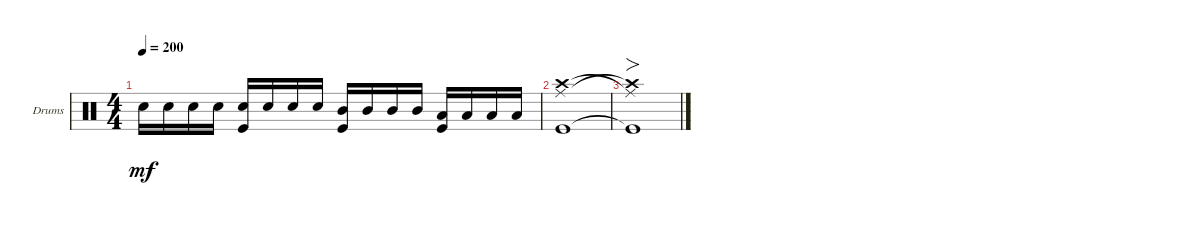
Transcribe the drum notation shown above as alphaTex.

\defaultSystemsLayout 4
\bracketExtendMode groupsimilarinstruments
\firstSystemTrackNameOrientation horizontal
\otherSystemsTrackNameOrientation horizontal
\track ("Hell on da drums" "Drums") {instrument percussion}
\staff {score}
\articulation defaults
\ts (4 4)
\tempo 200
\clef neutral
\ks c "Snare (hit) 2".16{dy mf} "Snare (hit) 2".16 "Snare (hit) 2".16 "Snare (hit) 2".16
("Kick (hit)" "Snare (hit) 2").16 "Snare (hit) 2".16 "Snare (hit) 2".16 "Snare (hit) 2".16 ("Mid Tom (hit)" "Kick (hit)").16 "Mid Tom (hit)".16 "Mid Tom (hit)".16 "Mid Tom (hit)".16 ("Kick (hit)" "Low Tom (hit)").16 "Low Tom (hit)".16 "Low Tom (hit)".16 "Low Tom (hit)".16 |
("Kick (hit)" "Crash high (hit)" "Ride (middle)").1 |
("Kick (hit)"{t} "Ride (middle)"{t} "Crash high (hit)"{t}).1{fo}
